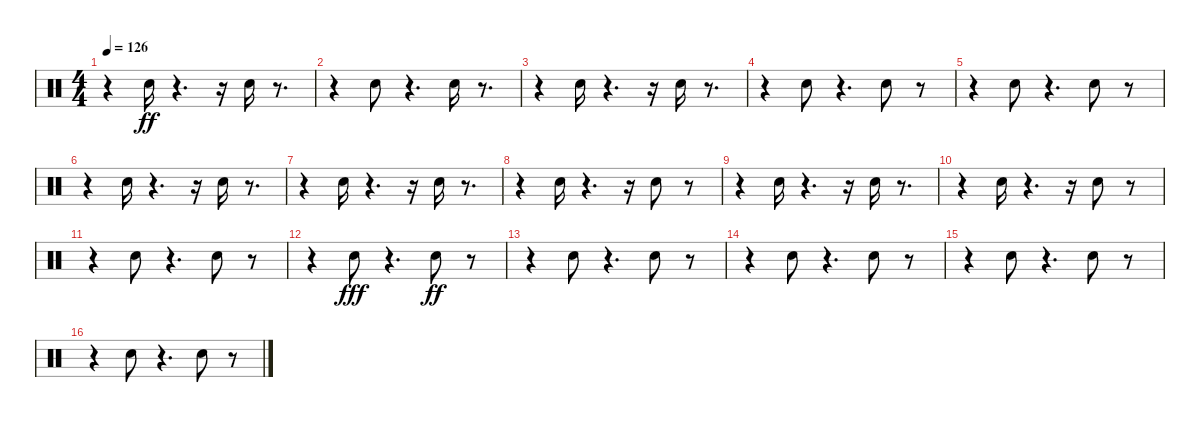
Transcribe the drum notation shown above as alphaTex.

\track "" {instrument percussion}
\staff {score}
\articulation defaults
\ts (4 4)
\tempo 126
\clef neutral
\ks c
r.4{dy ff} "Snare (hit) 2".16 r.4{d} r.16 "Snare (hit) 2".16 r.8{d} |
r.4 "Snare (hit) 2".8 r.4{d} "Snare (hit) 2".16 r.8{d} |
r.4 "Snare (hit) 2".16 r.4{d} r.16 "Snare (hit) 2".16 r.8{d} |
r.4 "Snare (hit) 2".8 r.4{d} "Snare (hit) 2".8 r.8 |
r.4 "Snare (hit) 2".8 r.4{d} "Snare (hit) 2".8 r.8 |
r.4 "Snare (hit) 2".16 r.4{d} r.16 "Snare (hit) 2".16 r.8{d} |
r.4 "Snare (hit) 2".16 r.4{d} r.16 "Snare (hit) 2".16 r.8{d} |
r.4 "Snare (hit) 2".16 r.4{d} r.16 "Snare (hit) 2".8 r.8 |
r.4 "Snare (hit) 2".16 r.4{d} r.16 "Snare (hit) 2".16 r.8{d} |
r.4 "Snare (hit) 2".16 r.4{d} r.16 "Snare (hit) 2".8 r.8 |
r.4 "Snare (hit) 2".8 r.4{d} "Snare (hit) 2".8 r.8 |
r.4 "Snare (hit) 2".8{dy fff} r.4{d} "Snare (hit) 2".8{dy ff} r.8 |
r.4 "Snare (hit) 2".8 r.4{d} "Snare (hit) 2".8 r.8 |
r.4 "Snare (hit) 2".8 r.4{d} "Snare (hit) 2".8 r.8 |
r.4 "Snare (hit) 2".8 r.4{d} "Snare (hit) 2".8 r.8 |
r.4 "Snare (hit) 2".8 r.4{d} "Snare (hit) 2".8 r.8
